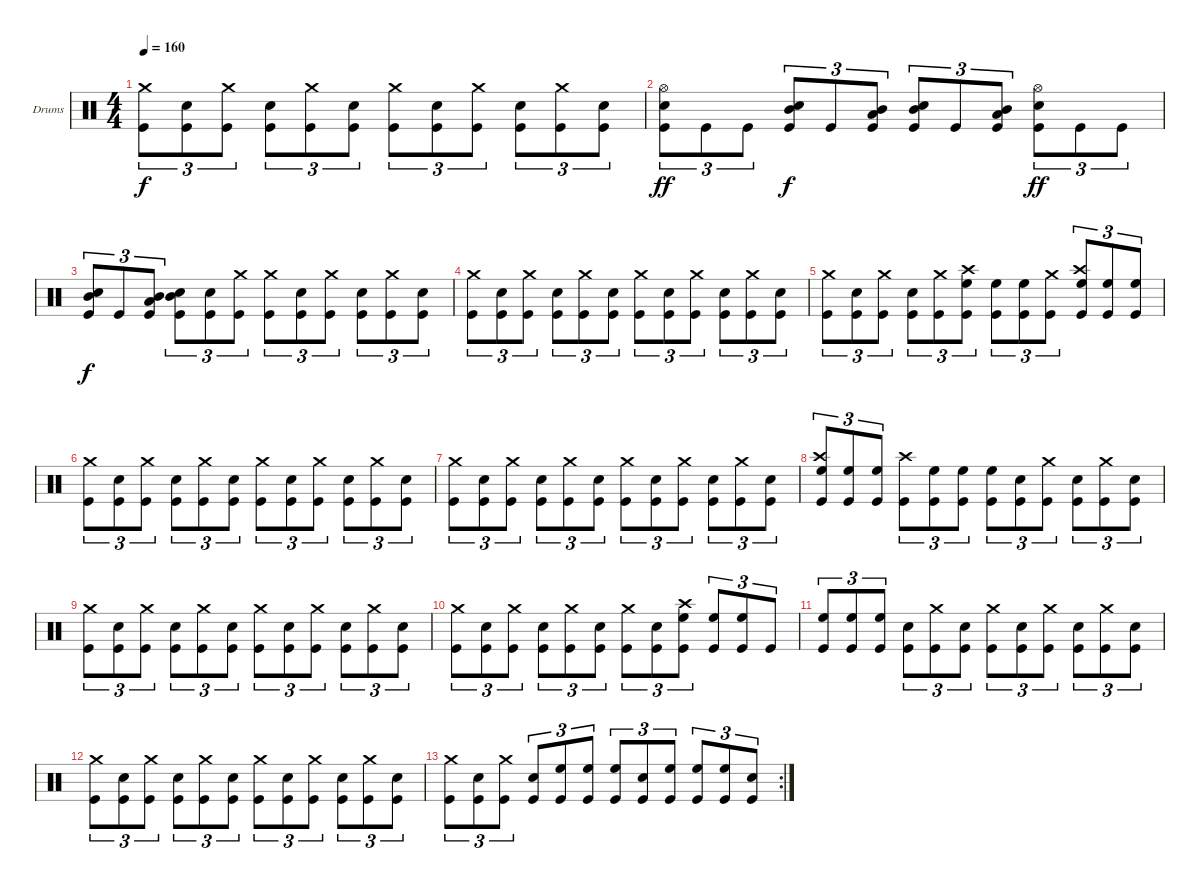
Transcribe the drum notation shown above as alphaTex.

\defaultSystemsLayout 4
\bracketExtendMode groupsimilarinstruments
\firstSystemTrackNameOrientation horizontal
\otherSystemsTrackNameOrientation horizontal
\track ("Drumkit" "Drums") {instrument percussion}
\staff {score}
\articulation defaults
\ts (4 4)
\tempo 160
\clef neutral
\ks c
("Crash medium (hit)" "Kick (hit)").8{tu (3 2) dy f} ("Kick (hit)" "Snare (hit) 2").8{tu (3 2)} ("Crash medium (hit)" "Kick (hit)").8{tu (3 2)} ("Kick (hit)" "Snare (hit) 2").8{tu (3 2)} ("Crash medium (hit)" "Kick (hit)").8{tu (3 2)} ("Kick (hit)" "Snare (hit) 2").8{tu (3 2)} ("Crash medium (hit)" "Kick (hit)").8{tu (3 2)} ("Kick (hit)" "Snare (hit) 2").8{tu (3 2)} ("Crash medium (hit)" "Kick (hit)").8{tu (3 2)} ("Kick (hit)" "Snare (hit) 2").8{tu (3 2)} ("Crash medium (hit)" "Kick (hit)").8{tu (3 2)} ("Kick (hit)" "Snare (hit) 2").8{tu (3 2)} |
("Hi-Hat (open)" "Snare (hit) 2" "Kick (hit)").8{tu (3 2) dy ff} "Kick (hit)".8{tu (3 2)} "Kick (hit)".8{tu (3 2)} ("Mid Tom (hit)" "Snare (hit) 2" "Kick (hit)").8{tu (3 2) dy f} "Kick (hit)".8{tu (3 2)} ("Mid Tom (hit)" "Low Tom (hit)" "Kick (hit)").8{tu (3 2)} ("Mid Tom (hit)" "Snare (hit) 2" "Kick (hit)").8{tu (3 2)} "Kick (hit)".8{tu (3 2)} ("Mid Tom (hit)" "Low Tom (hit)" "Kick (hit)").8{tu (3 2)} ("Hi-Hat (open)" "Snare (hit) 2" "Kick (hit)").8{tu (3 2) dy ff} "Kick (hit)".8{tu (3 2)} "Kick (hit)".8{tu (3 2)} |
("Mid Tom (hit)" "Snare (hit) 2" "Kick (hit)").8{tu (3 2) dy f} "Kick (hit)".8{tu (3 2)} ("Mid Tom (hit)" "Low Tom (hit)" "Kick (hit)").8{tu (3 2)} ("Mid Tom (hit)" "Snare (hit) 2" "Kick (hit)").8{tu (3 2)} ("Kick (hit)" "Snare (hit) 2").8{tu (3 2)} ("Crash medium (hit)" "Kick (hit)").8{tu (3 2)} ("Crash medium (hit)" "Kick (hit)").8{tu (3 2)} ("Kick (hit)" "Snare (hit) 2").8{tu (3 2)} ("Crash medium (hit)" "Kick (hit)").8{tu (3 2)} ("Kick (hit)" "Snare (hit) 2").8{tu (3 2)} ("Crash medium (hit)" "Kick (hit)").8{tu (3 2)} ("Kick (hit)" "Snare (hit) 2").8{tu (3 2)} |
("Crash medium (hit)" "Kick (hit)").8{tu (3 2)} ("Kick (hit)" "Snare (hit) 2").8{tu (3 2)} ("Crash medium (hit)" "Kick (hit)").8{tu (3 2)} ("Kick (hit)" "Snare (hit) 2").8{tu (3 2)} ("Crash medium (hit)" "Kick (hit)").8{tu (3 2)} ("Kick (hit)" "Snare (hit) 2").8{tu (3 2)} ("Crash medium (hit)" "Kick (hit)").8{tu (3 2)} ("Kick (hit)" "Snare (hit) 2").8{tu (3 2)} ("Crash medium (hit)" "Kick (hit)").8{tu (3 2)} ("Kick (hit)" "Snare (hit) 2").8{tu (3 2)} ("Crash medium (hit)" "Kick (hit)").8{tu (3 2)} ("Kick (hit)" "Snare (hit) 2").8{tu (3 2)} |
("Crash medium (hit)" "Kick (hit)").8{tu (3 2)} ("Kick (hit)" "Snare (hit) 2").8{tu (3 2)} ("Crash medium (hit)" "Kick (hit)").8{tu (3 2)} ("Kick (hit)" "Snare (hit) 2").8{tu (3 2)} ("Crash medium (hit)" "Kick (hit)").8{tu (3 2)} ("Crash high (hit)" "Kick (hit)" "High Floor Tom (hit)").8{tu (3 2)} ("Kick (hit)" "High Floor Tom (hit)").8{tu (3 2)} ("Kick (hit)" "High Floor Tom (hit)").8{tu (3 2)} ("Crash medium (hit)" "Kick (hit)").8{tu (3 2)} ("Crash high (hit)" "Kick (hit)" "High Floor Tom (hit)").8{tu (3 2)} ("Kick (hit)" "High Floor Tom (hit)").8{tu (3 2)} ("Kick (hit)" "High Floor Tom (hit)").8{tu (3 2)} |
("Crash medium (hit)" "Kick (hit)").8{tu (3 2)} ("Kick (hit)" "Snare (hit) 2").8{tu (3 2)} ("Crash medium (hit)" "Kick (hit)").8{tu (3 2)} ("Kick (hit)" "Snare (hit) 2").8{tu (3 2)} ("Crash medium (hit)" "Kick (hit)").8{tu (3 2)} ("Kick (hit)" "Snare (hit) 2").8{tu (3 2)} ("Crash medium (hit)" "Kick (hit)").8{tu (3 2)} ("Kick (hit)" "Snare (hit) 2").8{tu (3 2)} ("Crash medium (hit)" "Kick (hit)").8{tu (3 2)} ("Kick (hit)" "Snare (hit) 2").8{tu (3 2)} ("Crash medium (hit)" "Kick (hit)").8{tu (3 2)} ("Kick (hit)" "Snare (hit) 2").8{tu (3 2)} |
("Crash medium (hit)" "Kick (hit)").8{tu (3 2)} ("Kick (hit)" "Snare (hit) 2").8{tu (3 2)} ("Crash medium (hit)" "Kick (hit)").8{tu (3 2)} ("Kick (hit)" "Snare (hit) 2").8{tu (3 2)} ("Crash medium (hit)" "Kick (hit)").8{tu (3 2)} ("Kick (hit)" "Snare (hit) 2").8{tu (3 2)} ("Crash medium (hit)" "Kick (hit)").8{tu (3 2)} ("Kick (hit)" "Snare (hit) 2").8{tu (3 2)} ("Crash medium (hit)" "Kick (hit)").8{tu (3 2)} ("Kick (hit)" "Snare (hit) 2").8{tu (3 2)} ("Crash medium (hit)" "Kick (hit)").8{tu (3 2)} ("Kick (hit)" "Snare (hit) 2").8{tu (3 2)} |
("Crash high (hit)" "Kick (hit)" "High Floor Tom (hit)").8{tu (3 2)} ("Kick (hit)" "High Floor Tom (hit)").8{tu (3 2)} ("Kick (hit)" "High Floor Tom (hit)").8{tu (3 2)} ("Crash high (hit)" "Kick (hit)").8{tu (3 2)} ("Kick (hit)" "High Floor Tom (hit)").8{tu (3 2)} ("Kick (hit)" "High Floor Tom (hit)").8{tu (3 2)} ("Kick (hit)" "High Floor Tom (hit)").8{tu (3 2)} ("Kick (hit)" "Snare (hit) 2").8{tu (3 2)} ("Crash medium (hit)" "Kick (hit)").8{tu (3 2)} ("Kick (hit)" "Snare (hit) 2").8{tu (3 2)} ("Crash medium (hit)" "Kick (hit)").8{tu (3 2)} ("Kick (hit)" "Snare (hit) 2").8{tu (3 2)} |
("Crash medium (hit)" "Kick (hit)").8{tu (3 2)} ("Kick (hit)" "Snare (hit) 2").8{tu (3 2)} ("Crash medium (hit)" "Kick (hit)").8{tu (3 2)} ("Kick (hit)" "Snare (hit) 2").8{tu (3 2)} ("Crash medium (hit)" "Kick (hit)").8{tu (3 2)} ("Kick (hit)" "Snare (hit) 2").8{tu (3 2)} ("Crash medium (hit)" "Kick (hit)").8{tu (3 2)} ("Kick (hit)" "Snare (hit) 2").8{tu (3 2)} ("Crash medium (hit)" "Kick (hit)").8{tu (3 2)} ("Kick (hit)" "Snare (hit) 2").8{tu (3 2)} ("Crash medium (hit)" "Kick (hit)").8{tu (3 2)} ("Kick (hit)" "Snare (hit) 2").8{tu (3 2)} |
("Crash medium (hit)" "Kick (hit)").8{tu (3 2)} ("Kick (hit)" "Snare (hit) 2").8{tu (3 2)} ("Crash medium (hit)" "Kick (hit)").8{tu (3 2)} ("Kick (hit)" "Snare (hit) 2").8{tu (3 2)} ("Crash medium (hit)" "Kick (hit)").8{tu (3 2)} ("Kick (hit)" "Snare (hit) 2").8{tu (3 2)} ("Crash medium (hit)" "Kick (hit)").8{tu (3 2)} ("Kick (hit)" "Snare (hit) 2").8{tu (3 2)} ("Crash high (hit)" "Kick (hit)" "High Floor Tom (hit)").8{tu (3 2)} ("Kick (hit)" "High Floor Tom (hit)").8{tu (3 2)} ("Kick (hit)" "High Floor Tom (hit)").8{tu (3 2)} "Kick (hit)".8{tu (3 2)} |
("Kick (hit)" "High Floor Tom (hit)").8{tu (3 2)} ("Kick (hit)" "High Floor Tom (hit)").8{tu (3 2)} ("Kick (hit)" "High Floor Tom (hit)").8{tu (3 2)} ("Kick (hit)" "Snare (hit) 2").8{tu (3 2)} ("Crash medium (hit)" "Kick (hit)").8{tu (3 2)} ("Kick (hit)" "Snare (hit) 2").8{tu (3 2)} ("Crash medium (hit)" "Kick (hit)").8{tu (3 2)} ("Kick (hit)" "Snare (hit) 2").8{tu (3 2)} ("Crash medium (hit)" "Kick (hit)").8{tu (3 2)} ("Kick (hit)" "Snare (hit) 2").8{tu (3 2)} ("Crash medium (hit)" "Kick (hit)").8{tu (3 2)} ("Kick (hit)" "Snare (hit) 2").8{tu (3 2)} |
("Crash medium (hit)" "Kick (hit)").8{tu (3 2)} ("Kick (hit)" "Snare (hit) 2").8{tu (3 2)} ("Crash medium (hit)" "Kick (hit)").8{tu (3 2)} ("Kick (hit)" "Snare (hit) 2").8{tu (3 2)} ("Crash medium (hit)" "Kick (hit)").8{tu (3 2)} ("Kick (hit)" "Snare (hit) 2").8{tu (3 2)} ("Crash medium (hit)" "Kick (hit)").8{tu (3 2)} ("Kick (hit)" "Snare (hit) 2").8{tu (3 2)} ("Crash medium (hit)" "Kick (hit)").8{tu (3 2)} ("Kick (hit)" "Snare (hit) 2").8{tu (3 2)} ("Crash medium (hit)" "Kick (hit)").8{tu (3 2)} ("Kick (hit)" "Snare (hit) 2").8{tu (3 2)} |
\rc 2
("Crash medium (hit)" "Kick (hit)").8{tu (3 2)} ("Kick (hit)" "Snare (hit) 2").8{tu (3 2)} ("Crash medium (hit)" "Kick (hit)").8{tu (3 2)} ("Kick (hit)" "Snare (hit) 2").8{tu (3 2)} ("Kick (hit)" "High Floor Tom (hit)").8{tu (3 2)} ("Kick (hit)" "High Floor Tom (hit)").8{tu (3 2)} ("Kick (hit)" "High Floor Tom (hit)").8{tu (3 2)} ("Kick (hit)" "Snare (hit) 2").8{tu (3 2)} ("Kick (hit)" "High Floor Tom (hit)").8{tu (3 2)} ("Kick (hit)" "High Floor Tom (hit)").8{tu (3 2)} ("Kick (hit)" "High Floor Tom (hit)").8{tu (3 2)} ("Kick (hit)" "Snare (hit) 2").8{tu (3 2)}
